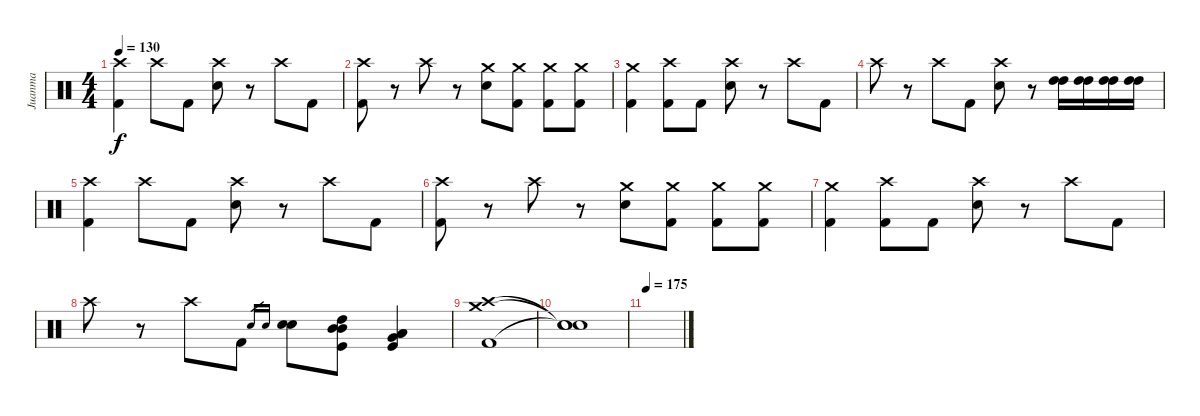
\track ("Juanma" "Juanma") {instrument percussion}
\staff {score}
\articulation defaults
\ts (4 4)
\tempo 130
\clef neutral
\ks c
("Crash high (hit)" "Kick (hit) 2").4{dy f} "Crash high (hit)".8 "Kick (hit) 2".8 ("Crash high (hit)" "Electric Snare (hit)").8 r.8 "Crash high (hit)".8 "Kick (hit) 2".8 |
("Crash high (hit)" "Kick (hit) 2").8 r.8 "Crash high (hit)".8 r.8 ("Crash medium (hit)" "Electric Snare (hit)").8 ("Crash medium (hit)" "Kick (hit) 2").8 ("Crash medium (hit)" "Kick (hit) 2").8 ("Crash medium (hit)" "Kick (hit) 2").8 |
("Crash medium (hit)" "Kick (hit) 2").4 ("Crash high (hit)" "Kick (hit) 2").8 "Kick (hit) 2".8 ("Crash high (hit)" "Electric Snare (hit)").8 r.8 "Crash high (hit)".8 "Kick (hit) 2".8 |
"Crash high (hit)".8 r.8 "Crash high (hit)".8 "Kick (hit) 2".8 ("Crash high (hit)" "Electric Snare (hit)").8 r.8 ("High Tom (hit)" "High Tom (hit)").16 ("High Tom (hit)" "High Tom (hit)").16 ("High Tom (hit)" "High Tom (hit)").16 ("High Tom (hit)" "High Tom (hit)").16 |
("Crash high (hit)" "Kick (hit) 2").4 "Crash high (hit)".8 "Kick (hit) 2".8 ("Crash high (hit)" "Electric Snare (hit)").8 r.8 "Crash high (hit)".8 "Kick (hit) 2".8 |
("Crash high (hit)" "Kick (hit) 2").8 r.8 "Crash high (hit)".8 r.8 ("Crash medium (hit)" "Electric Snare (hit)").8 ("Crash medium (hit)" "Kick (hit) 2").8 ("Crash medium (hit)" "Kick (hit) 2").8 ("Crash medium (hit)" "Kick (hit) 2").8 |
("Crash medium (hit)" "Kick (hit) 2").4 ("Crash high (hit)" "Kick (hit) 2").8 "Kick (hit) 2".8 ("Crash high (hit)" "Electric Snare (hit)").8 r.8 "Crash high (hit)".8 "Kick (hit) 2".8 |
"Crash high (hit)".8 r.8 "Crash high (hit)".8 "Kick (hit) 2".8 "Electric Snare (hit)".16{gr} "Electric Snare (hit)".16{gr} ("Electric Snare (hit)" "Electric Snare (hit)").8 ("Kick (hit)" "Mid Tom (hit)" "Mid Tom (hit)" "High Tom (hit)").8 ("Kick (hit)" "Low Tom (hit)" "Low Tom (hit)" "Very Low Tom (hit)").4 |
("Crash high (hit)" "Crash medium (hit)" "Kick (hit) 2").1 |
("Snare (hit)"{t} "Snare (hit)"{t} "Snare (hit)"{t}).1 |
\tempo 175
